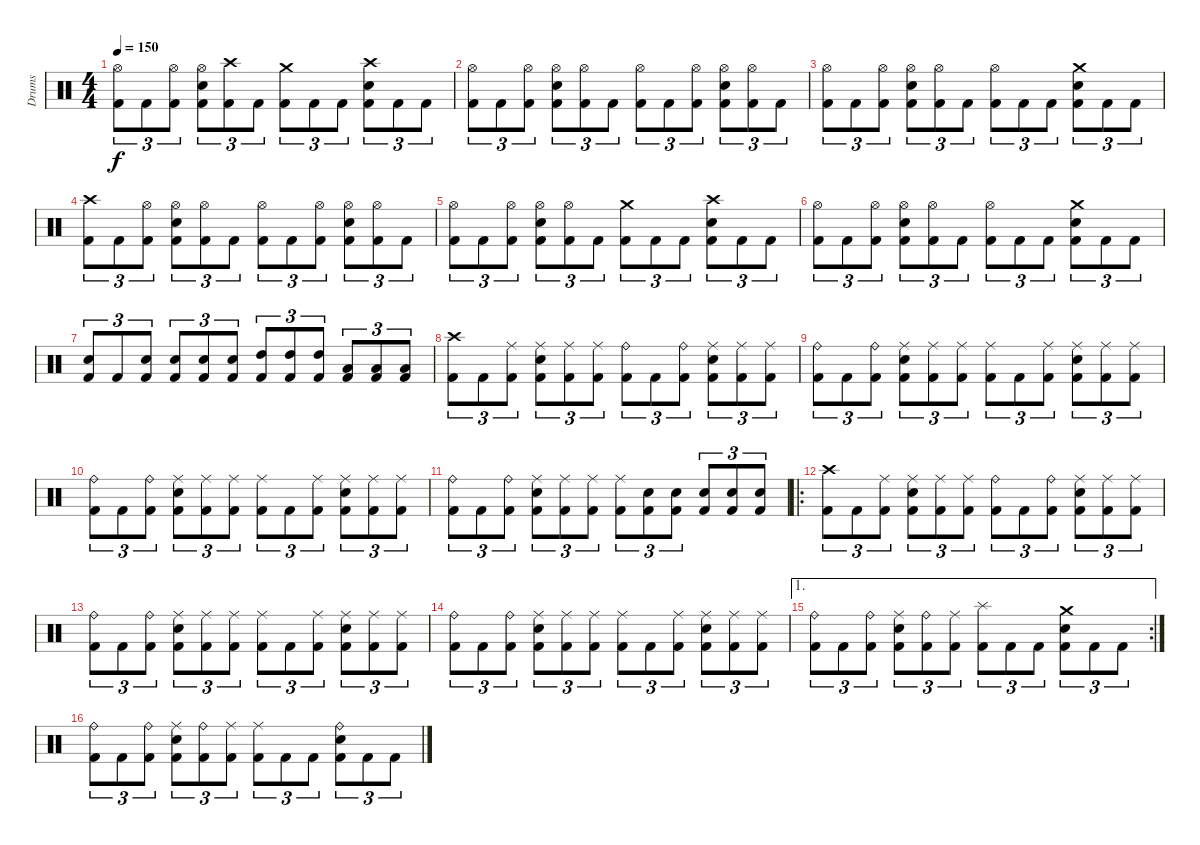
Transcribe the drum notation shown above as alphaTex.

\track ("Drums" "Drums") {instrument percussion}
\staff {score}
\articulation defaults
\ts (4 4)
\tempo 150
\clef neutral
\ks c
("Hi-Hat (open)" "Kick (hit) 2").8{tu (3 2) dy f} "Kick (hit) 2".8{tu (3 2)} ("Hi-Hat (open)" "Kick (hit) 2").8{tu (3 2)} ("Hi-Hat (open)" "Electric Snare (hit)" "Kick (hit) 2").8{tu (3 2)} ("Crash high (hit)" "Kick (hit) 2").8{tu (3 2)} "Kick (hit) 2".8{tu (3 2)} ("Crash medium (hit)" "Kick (hit) 2").8{tu (3 2)} "Kick (hit) 2".8{tu (3 2)} "Kick (hit) 2".8{tu (3 2)} ("Crash high (hit)" "Electric Snare (hit)" "Kick (hit) 2").8{tu (3 2)} "Kick (hit) 2".8{tu (3 2)} "Kick (hit) 2".8{tu (3 2)} |
("Hi-Hat (open)" "Kick (hit) 2").8{tu (3 2)} "Kick (hit) 2".8{tu (3 2)} ("Hi-Hat (open)" "Kick (hit) 2").8{tu (3 2)} ("Hi-Hat (open)" "Electric Snare (hit)" "Kick (hit) 2").8{tu (3 2)} ("Hi-Hat (open)" "Kick (hit) 2").8{tu (3 2)} "Kick (hit) 2".8{tu (3 2)} ("Hi-Hat (open)" "Kick (hit) 2").8{tu (3 2)} "Kick (hit) 2".8{tu (3 2)} ("Hi-Hat (open)" "Kick (hit) 2").8{tu (3 2)} ("Hi-Hat (open)" "Electric Snare (hit)" "Kick (hit) 2").8{tu (3 2)} ("Hi-Hat (open)" "Kick (hit) 2").8{tu (3 2)} "Kick (hit) 2".8{tu (3 2)} |
("Hi-Hat (open)" "Kick (hit) 2").8{tu (3 2)} "Kick (hit) 2".8{tu (3 2)} ("Hi-Hat (open)" "Kick (hit) 2").8{tu (3 2)} ("Hi-Hat (open)" "Electric Snare (hit)" "Kick (hit) 2").8{tu (3 2)} ("Hi-Hat (open)" "Kick (hit) 2").8{tu (3 2)} "Kick (hit) 2".8{tu (3 2)} ("Hi-Hat (open)" "Kick (hit) 2").8{tu (3 2)} "Kick (hit) 2".8{tu (3 2)} "Kick (hit) 2".8{tu (3 2)} ("Crash medium (hit)" "Electric Snare (hit)" "Kick (hit) 2").8{tu (3 2)} "Kick (hit) 2".8{tu (3 2)} "Kick (hit) 2".8{tu (3 2)} |
("Crash high (hit)" "Kick (hit) 2").8{tu (3 2)} "Kick (hit) 2".8{tu (3 2)} ("Hi-Hat (open)" "Kick (hit) 2").8{tu (3 2)} ("Hi-Hat (open)" "Electric Snare (hit)" "Kick (hit) 2").8{tu (3 2)} ("Hi-Hat (open)" "Kick (hit) 2").8{tu (3 2)} "Kick (hit) 2".8{tu (3 2)} ("Hi-Hat (open)" "Kick (hit) 2").8{tu (3 2)} "Kick (hit) 2".8{tu (3 2)} ("Hi-Hat (open)" "Kick (hit) 2").8{tu (3 2)} ("Hi-Hat (open)" "Electric Snare (hit)" "Kick (hit) 2").8{tu (3 2)} ("Hi-Hat (open)" "Kick (hit) 2").8{tu (3 2)} "Kick (hit) 2".8{tu (3 2)} |
("Hi-Hat (open)" "Kick (hit) 2").8{tu (3 2)} "Kick (hit) 2".8{tu (3 2)} ("Hi-Hat (open)" "Kick (hit) 2").8{tu (3 2)} ("Hi-Hat (open)" "Electric Snare (hit)" "Kick (hit) 2").8{tu (3 2)} ("Hi-Hat (open)" "Kick (hit) 2").8{tu (3 2)} "Kick (hit) 2".8{tu (3 2)} ("Crash medium (hit)" "Kick (hit) 2").8{tu (3 2)} "Kick (hit) 2".8{tu (3 2)} "Kick (hit) 2".8{tu (3 2)} ("Crash high (hit)" "Electric Snare (hit)" "Kick (hit) 2").8{tu (3 2)} "Kick (hit) 2".8{tu (3 2)} "Kick (hit) 2".8{tu (3 2)} |
("Hi-Hat (open)" "Kick (hit) 2").8{tu (3 2)} "Kick (hit) 2".8{tu (3 2)} ("Hi-Hat (open)" "Kick (hit) 2").8{tu (3 2)} ("Hi-Hat (open)" "Electric Snare (hit)" "Kick (hit) 2").8{tu (3 2)} ("Hi-Hat (open)" "Kick (hit) 2").8{tu (3 2)} "Kick (hit) 2".8{tu (3 2)} ("Hi-Hat (open)" "Kick (hit) 2").8{tu (3 2)} "Kick (hit) 2".8{tu (3 2)} "Kick (hit) 2".8{tu (3 2)} ("Crash medium (hit)" "Electric Snare (hit)" "Kick (hit) 2").8{tu (3 2)} "Kick (hit) 2".8{tu (3 2)} "Kick (hit) 2".8{tu (3 2)} |
("Electric Snare (hit)" "Kick (hit) 2").8{tu (3 2)} "Kick (hit) 2".8{tu (3 2)} ("Electric Snare (hit)" "Kick (hit) 2").8{tu (3 2)} ("Electric Snare (hit)" "Kick (hit) 2").8{tu (3 2)} ("Electric Snare (hit)" "Kick (hit) 2").8{tu (3 2)} ("Electric Snare (hit)" "Kick (hit) 2").8{tu (3 2)} ("High Tom (hit)" "Kick (hit) 2").8{tu (3 2)} ("High Tom (hit)" "Kick (hit) 2").8{tu (3 2)} ("High Tom (hit)" "Kick (hit) 2").8{tu (3 2)} ("Low Tom (hit)" "Kick (hit) 2").8{tu (3 2)} ("Low Tom (hit)" "Kick (hit) 2").8{tu (3 2)} ("Low Tom (hit)" "Kick (hit) 2").8{tu (3 2)} |
("Crash high (hit)" "Kick (hit) 2").8{tu (3 2)} "Kick (hit) 2".8{tu (3 2)} ("Ride (middle)" "Kick (hit) 2").8{tu (3 2)} ("Ride (middle)" "Electric Snare (hit)" "Kick (hit) 2").8{tu (3 2)} ("Ride (middle)" "Kick (hit) 2").8{tu (3 2)} ("Ride (middle)" "Kick (hit) 2").8{tu (3 2)} ("Ride (bell)" "Kick (hit) 2").8{tu (3 2)} "Kick (hit) 2".8{tu (3 2)} ("Ride (bell)" "Kick (hit) 2").8{tu (3 2)} ("Ride (middle)" "Electric Snare (hit)" "Kick (hit) 2").8{tu (3 2)} ("Ride (middle)" "Kick (hit) 2").8{tu (3 2)} ("Ride (middle)" "Kick (hit) 2").8{tu (3 2)} |
("Ride (bell)" "Kick (hit) 2").8{tu (3 2)} "Kick (hit) 2".8{tu (3 2)} ("Ride (bell)" "Kick (hit) 2").8{tu (3 2)} ("Ride (middle)" "Electric Snare (hit)" "Kick (hit) 2").8{tu (3 2)} ("Ride (middle)" "Kick (hit) 2").8{tu (3 2)} ("Ride (middle)" "Kick (hit) 2").8{tu (3 2)} ("Ride (middle)" "Kick (hit) 2").8{tu (3 2)} "Kick (hit) 2".8{tu (3 2)} ("Ride (middle)" "Kick (hit) 2").8{tu (3 2)} ("Ride (middle)" "Electric Snare (hit)" "Kick (hit) 2").8{tu (3 2)} ("Ride (middle)" "Kick (hit) 2").8{tu (3 2)} ("Ride (middle)" "Kick (hit) 2").8{tu (3 2)} |
("Ride (bell)" "Kick (hit) 2").8{tu (3 2)} "Kick (hit) 2".8{tu (3 2)} ("Ride (bell)" "Kick (hit) 2").8{tu (3 2)} ("Ride (middle)" "Electric Snare (hit)" "Kick (hit) 2").8{tu (3 2)} ("Ride (middle)" "Kick (hit) 2").8{tu (3 2)} ("Ride (middle)" "Kick (hit) 2").8{tu (3 2)} ("Ride (middle)" "Kick (hit) 2").8{tu (3 2)} "Kick (hit) 2".8{tu (3 2)} ("Ride (middle)" "Kick (hit) 2").8{tu (3 2)} ("Ride (middle)" "Electric Snare (hit)" "Kick (hit) 2").8{tu (3 2)} ("Ride (middle)" "Kick (hit) 2").8{tu (3 2)} ("Ride (middle)" "Kick (hit) 2").8{tu (3 2)} |
("Ride (bell)" "Kick (hit) 2").8{tu (3 2)} "Kick (hit) 2".8{tu (3 2)} ("Ride (bell)" "Kick (hit) 2").8{tu (3 2)} ("Ride (middle)" "Electric Snare (hit)" "Kick (hit) 2").8{tu (3 2)} ("Ride (middle)" "Kick (hit) 2").8{tu (3 2)} ("Ride (middle)" "Kick (hit) 2").8{tu (3 2)} ("Ride (middle)" "Kick (hit) 2").8{tu (3 2)} ("Electric Snare (hit)" "Kick (hit) 2").8{tu (3 2)} ("Electric Snare (hit)" "Kick (hit) 2").8{tu (3 2)} ("Electric Snare (hit)" "Kick (hit) 2").8{tu (3 2)} ("Electric Snare (hit)" "Kick (hit) 2").8{tu (3 2)} ("Electric Snare (hit)" "Kick (hit) 2").8{tu (3 2)} |
\ro
("Crash high (hit)" "Kick (hit) 2").8{tu (3 2)} "Kick (hit) 2".8{tu (3 2)} ("Ride (middle)" "Kick (hit) 2").8{tu (3 2)} ("Ride (middle)" "Electric Snare (hit)" "Kick (hit) 2").8{tu (3 2)} ("Ride (middle)" "Kick (hit) 2").8{tu (3 2)} ("Ride (middle)" "Kick (hit) 2").8{tu (3 2)} ("Ride (bell)" "Kick (hit) 2").8{tu (3 2)} "Kick (hit) 2".8{tu (3 2)} ("Ride (bell)" "Kick (hit) 2").8{tu (3 2)} ("Ride (middle)" "Electric Snare (hit)" "Kick (hit) 2").8{tu (3 2)} ("Ride (middle)" "Kick (hit) 2").8{tu (3 2)} ("Ride (middle)" "Kick (hit) 2").8{tu (3 2)} |
("Ride (bell)" "Kick (hit) 2").8{tu (3 2)} "Kick (hit) 2".8{tu (3 2)} ("Ride (bell)" "Kick (hit) 2").8{tu (3 2)} ("Ride (middle)" "Electric Snare (hit)" "Kick (hit) 2").8{tu (3 2)} ("Ride (middle)" "Kick (hit) 2").8{tu (3 2)} ("Ride (middle)" "Kick (hit) 2").8{tu (3 2)} ("Ride (middle)" "Kick (hit) 2").8{tu (3 2)} "Kick (hit) 2".8{tu (3 2)} ("Ride (middle)" "Kick (hit) 2").8{tu (3 2)} ("Ride (middle)" "Electric Snare (hit)" "Kick (hit) 2").8{tu (3 2)} ("Ride (middle)" "Kick (hit) 2").8{tu (3 2)} ("Ride (middle)" "Kick (hit) 2").8{tu (3 2)} |
("Ride (bell)" "Kick (hit) 2").8{tu (3 2)} "Kick (hit) 2".8{tu (3 2)} ("Ride (bell)" "Kick (hit) 2").8{tu (3 2)} ("Ride (middle)" "Electric Snare (hit)" "Kick (hit) 2").8{tu (3 2)} ("Ride (middle)" "Kick (hit) 2").8{tu (3 2)} ("Ride (middle)" "Kick (hit) 2").8{tu (3 2)} ("Ride (middle)" "Kick (hit) 2").8{tu (3 2)} "Kick (hit) 2".8{tu (3 2)} ("Ride (middle)" "Kick (hit) 2").8{tu (3 2)} ("Ride (middle)" "Electric Snare (hit)" "Kick (hit) 2").8{tu (3 2)} ("Ride (middle)" "Kick (hit) 2").8{tu (3 2)} ("Ride (middle)" "Kick (hit) 2").8{tu (3 2)} |
\ae 1
\rc 2
("Ride (bell)" "Kick (hit) 2").8{tu (3 2)} "Kick (hit) 2".8{tu (3 2)} ("Ride (bell)" "Kick (hit) 2").8{tu (3 2)} ("Ride (middle)" "Electric Snare (hit)" "Kick (hit) 2").8{tu (3 2)} ("Ride (bell)" "Kick (hit) 2").8{tu (3 2)} ("Ride (middle)" "Kick (hit) 2").8{tu (3 2)} ("Splash (hit)" "Kick (hit) 2").8{tu (3 2)} "Kick (hit) 2".8{tu (3 2)} "Kick (hit) 2".8{tu (3 2)} ("Crash medium (hit)" "Electric Snare (hit)" "Kick (hit) 2").8{tu (3 2)} "Kick (hit) 2".8{tu (3 2)} "Kick (hit) 2".8{tu (3 2)} |
("Ride (bell)" "Kick (hit) 2").8{tu (3 2)} "Kick (hit) 2".8{tu (3 2)} ("Ride (bell)" "Kick (hit) 2").8{tu (3 2)} ("Ride (middle)" "Electric Snare (hit)" "Kick (hit) 2").8{tu (3 2)} ("Ride (bell)" "Kick (hit) 2").8{tu (3 2)} ("Ride (middle)" "Kick (hit) 2").8{tu (3 2)} ("Ride (middle)" "Kick (hit) 2").8{tu (3 2)} "Kick (hit) 2".8{tu (3 2)} "Kick (hit) 2".8{tu (3 2)} ("Ride (bell)" "Electric Snare (hit)" "Kick (hit) 2").8{tu (3 2)} "Kick (hit) 2".8{tu (3 2)} "Kick (hit) 2".8{tu (3 2)}
